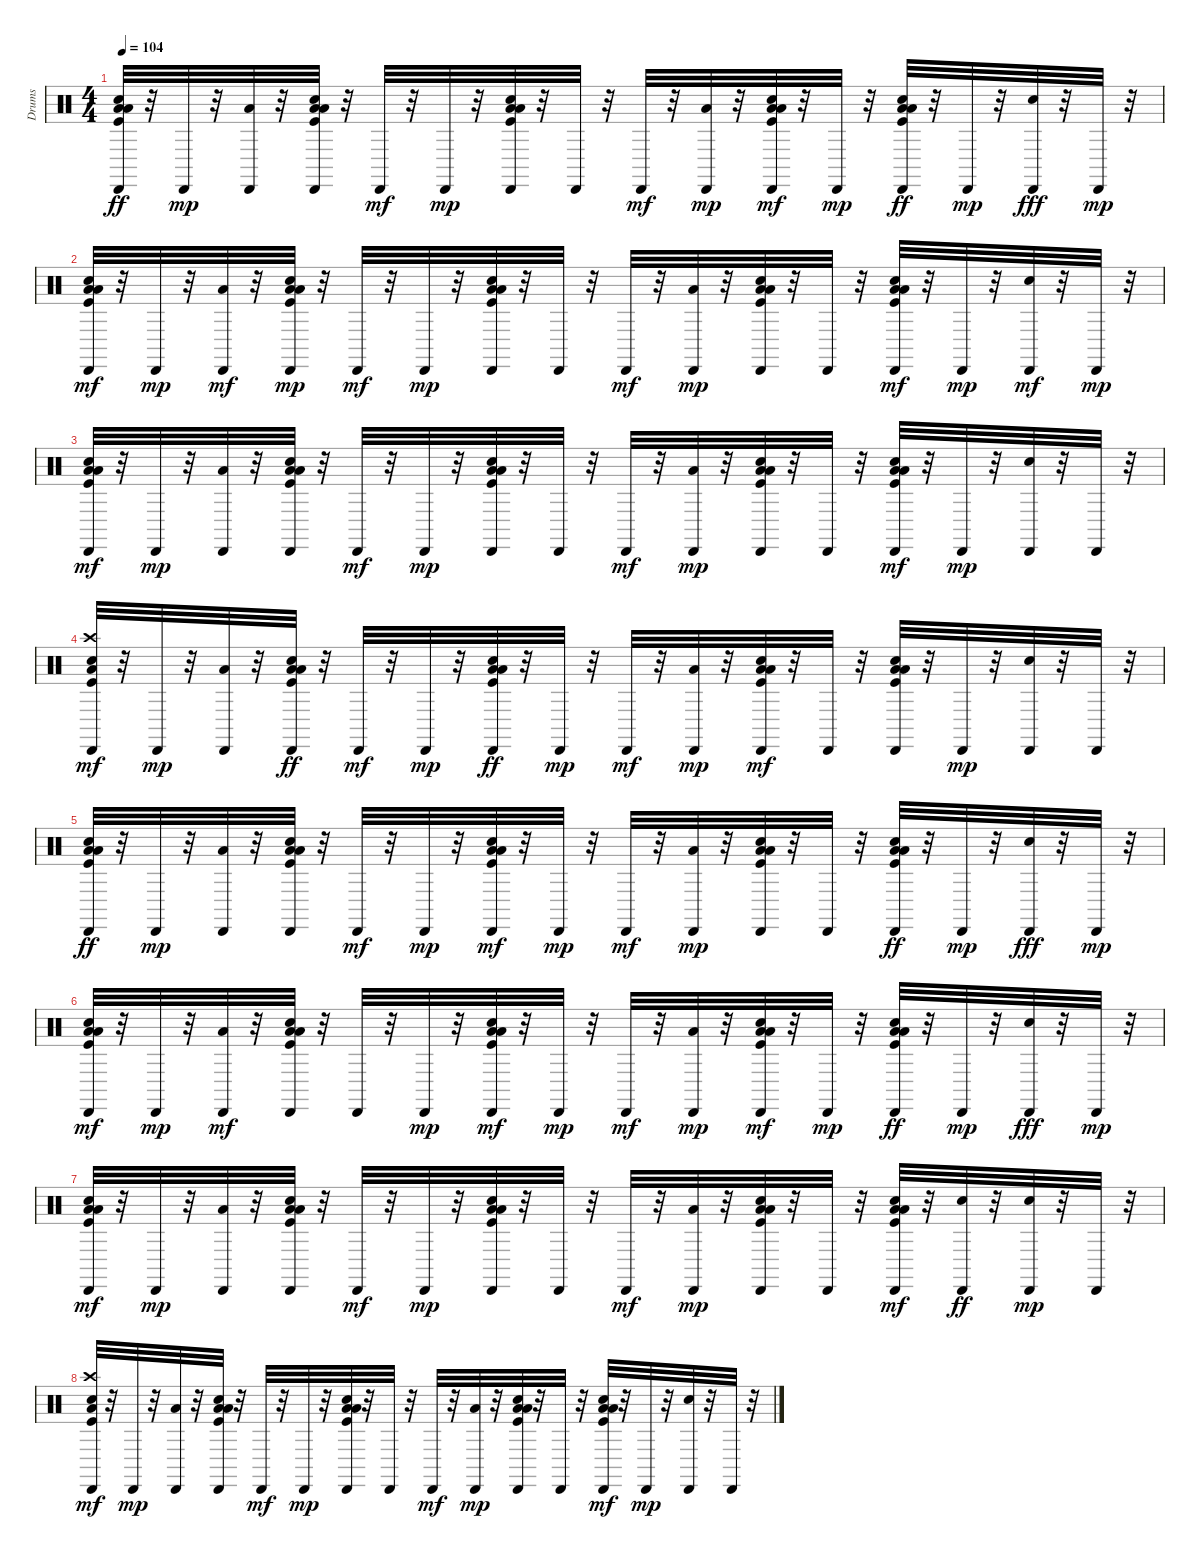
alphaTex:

\track ("Drums" "Drums") {instrument percussion}
\staff {score}
\articulation defaults
\ts (4 4)
\tempo 104
\clef neutral
\ks c
("Low Floor Tom (hit)" "Kick (hit)" "Cabasa (hit)" "Hand Clap (hit)" "Low Tom (hit)").32{dy ff} r.32 "Cabasa (hit)".32{dy mp} r.32 ("Low Tom (hit)" "Cabasa (hit)").32 r.32 ("Low Tom (hit)" "Kick (hit)" "Cabasa (hit)" "Low Floor Tom (hit)" "Hand Clap (hit)").32 r.32 "Cabasa (hit)".32{dy mf} r.32 "Cabasa (hit)".32{dy mp} r.32 ("Low Tom (hit)" "Low Floor Tom (hit)" "Kick (hit)" "Hand Clap (hit)" "Cabasa (hit)").32 r.32 "Cabasa (hit)".32 r.32 "Cabasa (hit)".32{dy mf} r.32 ("Cabasa (hit)" "Low Tom (hit)").32{dy mp} r.32 ("Low Tom (hit)" "Hand Clap (hit)" "Cabasa (hit)" "Low Floor Tom (hit)" "Kick (hit)").32{dy mf} r.32 "Cabasa (hit)".32{dy mp} r.32 ("Hand Clap (hit)" "Low Tom (hit)" "Kick (hit)" "Cabasa (hit)" "Low Floor Tom (hit)").32{dy ff} r.32 "Cabasa (hit)".32{dy mp} r.32 ("Cabasa (hit)" "Snare (hit) 2").32{dy fff} r.32 "Cabasa (hit)".32{dy mp} r.32 |
("Hand Clap (hit)" "Low Floor Tom (hit)" "Cabasa (hit)" "Low Tom (hit)" "Kick (hit)").32{dy mf} r.32 "Cabasa (hit)".32{dy mp} r.32 ("Cabasa (hit)" "Low Tom (hit)").32{dy mf} r.32 ("Hand Clap (hit)" "Low Tom (hit)" "Low Floor Tom (hit)" "Kick (hit)" "Cabasa (hit)").32{dy mp} r.32 "Cabasa (hit)".32{dy mf} r.32 "Cabasa (hit)".32{dy mp} r.32 ("Low Tom (hit)" "Low Floor Tom (hit)" "Hand Clap (hit)" "Kick (hit)" "Cabasa (hit)").32 r.32 "Cabasa (hit)".32 r.32 "Cabasa (hit)".32{dy mf} r.32 ("Low Tom (hit)" "Cabasa (hit)").32{dy mp} r.32 ("Hand Clap (hit)" "Low Tom (hit)" "Low Floor Tom (hit)" "Kick (hit)" "Cabasa (hit)").32 r.32 "Cabasa (hit)".32 r.32 ("Hand Clap (hit)" "Kick (hit)" "Low Tom (hit)" "Low Floor Tom (hit)" "Cabasa (hit)").32{dy mf} r.32 "Cabasa (hit)".32{dy mp} r.32 ("Snare (hit) 2" "Cabasa (hit)").32{dy mf} r.32 "Cabasa (hit)".32{dy mp} r.32 |
("Low Floor Tom (hit)" "Hand Clap (hit)" "Cabasa (hit)" "Kick (hit)" "Low Tom (hit)").32{dy mf} r.32 "Cabasa (hit)".32{dy mp} r.32 ("Cabasa (hit)" "Low Tom (hit)").32 r.32 ("Kick (hit)" "Cabasa (hit)" "Low Floor Tom (hit)" "Low Tom (hit)" "Hand Clap (hit)").32 r.32 "Cabasa (hit)".32{dy mf} r.32 "Cabasa (hit)".32{dy mp} r.32 ("Low Floor Tom (hit)" "Low Tom (hit)" "Kick (hit)" "Cabasa (hit)" "Hand Clap (hit)").32 r.32 "Cabasa (hit)".32 r.32 "Cabasa (hit)".32{dy mf} r.32 ("Cabasa (hit)" "Low Tom (hit)").32{dy mp} r.32 ("Low Floor Tom (hit)" "Low Tom (hit)" "Kick (hit)" "Hand Clap (hit)" "Cabasa (hit)").32 r.32 "Cabasa (hit)".32 r.32 ("Hand Clap (hit)" "Low Floor Tom (hit)" "Low Tom (hit)" "Kick (hit)" "Cabasa (hit)").32{dy mf} r.32 "Cabasa (hit)".32{dy mp} r.32 ("Snare (hit) 2" "Cabasa (hit)").32 r.32 "Cabasa (hit)".32 r.32 |
("Crash high (hit)" "Hand Clap (hit)" "Cabasa (hit)" "Low Floor Tom (hit)" "Kick (hit)").32{dy mf} r.32 "Cabasa (hit)".32{dy mp} r.32 ("Low Tom (hit)" "Cabasa (hit)").32 r.32 ("Low Tom (hit)" "Kick (hit)" "Hand Clap (hit)" "Cabasa (hit)" "Low Floor Tom (hit)").32{dy ff} r.32 "Cabasa (hit)".32{dy mf} r.32 "Cabasa (hit)".32{dy mp} r.32 ("Low Tom (hit)" "Kick (hit)" "Hand Clap (hit)" "Cabasa (hit)" "Low Floor Tom (hit)").32{dy ff} r.32 "Cabasa (hit)".32{dy mp} r.32 "Cabasa (hit)".32{dy mf} r.32 ("Low Tom (hit)" "Cabasa (hit)").32{dy mp} r.32 ("Low Tom (hit)" "Low Floor Tom (hit)" "Kick (hit)" "Hand Clap (hit)" "Cabasa (hit)").32{dy mf} r.32 "Cabasa (hit)".32 r.32 ("Low Floor Tom (hit)" "Low Tom (hit)" "Kick (hit)" "Cabasa (hit)" "Hand Clap (hit)").32 r.32 "Cabasa (hit)".32{dy mp} r.32 ("Snare (hit) 2" "Cabasa (hit)").32 r.32 "Cabasa (hit)".32 r.32 |
("Low Floor Tom (hit)" "Kick (hit)" "Hand Clap (hit)" "Cabasa (hit)" "Low Tom (hit)").32{dy ff} r.32 "Cabasa (hit)".32{dy mp} r.32 ("Low Tom (hit)" "Cabasa (hit)").32 r.32 ("Low Tom (hit)" "Kick (hit)" "Cabasa (hit)" "Hand Clap (hit)" "Low Floor Tom (hit)").32 r.32 "Cabasa (hit)".32{dy mf} r.32 "Cabasa (hit)".32{dy mp} r.32 ("Hand Clap (hit)" "Cabasa (hit)" "Low Tom (hit)" "Low Floor Tom (hit)" "Kick (hit)").32{dy mf} r.32 "Cabasa (hit)".32{dy mp} r.32 "Cabasa (hit)".32{dy mf} r.32 ("Low Tom (hit)" "Cabasa (hit)").32{dy mp} r.32 ("Hand Clap (hit)" "Low Tom (hit)" "Low Floor Tom (hit)" "Kick (hit)" "Cabasa (hit)").32 r.32 "Cabasa (hit)".32 r.32 ("Hand Clap (hit)" "Low Tom (hit)" "Kick (hit)" "Cabasa (hit)" "Low Floor Tom (hit)").32{dy ff} r.32 "Cabasa (hit)".32{dy mp} r.32 ("Cabasa (hit)" "Snare (hit) 2").32{dy fff} r.32 "Cabasa (hit)".32{dy mp} r.32 |
("Hand Clap (hit)" "Low Floor Tom (hit)" "Cabasa (hit)" "Low Tom (hit)" "Kick (hit)").32{dy mf} r.32 "Cabasa (hit)".32{dy mp} r.32 ("Cabasa (hit)" "Low Tom (hit)").32{dy mf} r.32 ("Hand Clap (hit)" "Cabasa (hit)" "Low Tom (hit)" "Low Floor Tom (hit)" "Kick (hit)").32 r.32 "Cabasa (hit)".32 r.32 "Cabasa (hit)".32{dy mp} r.32 ("Hand Clap (hit)" "Low Tom (hit)" "Low Floor Tom (hit)" "Cabasa (hit)" "Kick (hit)").32{dy mf} r.32 "Cabasa (hit)".32{dy mp} r.32 "Cabasa (hit)".32{dy mf} r.32 ("Cabasa (hit)" "Low Tom (hit)").32{dy mp} r.32 ("Hand Clap (hit)" "Low Tom (hit)" "Low Floor Tom (hit)" "Kick (hit)" "Cabasa (hit)").32{dy mf} r.32 "Cabasa (hit)".32{dy mp} r.32 ("Hand Clap (hit)" "Kick (hit)" "Cabasa (hit)" "Low Tom (hit)" "Low Floor Tom (hit)").32{dy ff} r.32 "Cabasa (hit)".32{dy mp} r.32 ("Cabasa (hit)" "Snare (hit) 2").32{dy fff} r.32 "Cabasa (hit)".32{dy mp} r.32 |
("Low Floor Tom (hit)" "Hand Clap (hit)" "Cabasa (hit)" "Kick (hit)" "Low Tom (hit)").32{dy mf} r.32 "Cabasa (hit)".32{dy mp} r.32 ("Cabasa (hit)" "Low Tom (hit)").32 r.32 ("Kick (hit)" "Cabasa (hit)" "Low Floor Tom (hit)" "Low Tom (hit)" "Hand Clap (hit)").32 r.32 "Cabasa (hit)".32{dy mf} r.32 "Cabasa (hit)".32{dy mp} r.32 ("Low Floor Tom (hit)" "Low Tom (hit)" "Kick (hit)" "Hand Clap (hit)" "Cabasa (hit)").32 r.32 "Cabasa (hit)".32 r.32 "Cabasa (hit)".32{dy mf} r.32 ("Low Tom (hit)" "Cabasa (hit)").32{dy mp} r.32 ("Low Floor Tom (hit)" "Hand Clap (hit)" "Low Tom (hit)" "Kick (hit)" "Cabasa (hit)").32 r.32 "Cabasa (hit)".32 r.32 ("Low Floor Tom (hit)" "Low Tom (hit)" "Kick (hit)" "Cabasa (hit)" "Hand Clap (hit)").32{dy mf} r.32 ("Cabasa (hit)" "Snare (hit) 2").32{dy ff} r.32 ("Snare (hit) 2" "Cabasa (hit)").32{dy mp} r.32 "Cabasa (hit)".32 r.32 |
("Hand Clap (hit)" "Crash high (hit)" "Low Floor Tom (hit)" "Kick (hit)" "Cabasa (hit)").32{dy mf} r.32 "Cabasa (hit)".32{dy mp} r.32 ("Low Tom (hit)" "Cabasa (hit)").32 r.32 ("Low Tom (hit)" "Kick (hit)" "Low Floor Tom (hit)" "Cabasa (hit)" "Hand Clap (hit)").32 r.32 "Cabasa (hit)".32{dy mf} r.32 "Cabasa (hit)".32{dy mp} r.32 ("Low Tom (hit)" "Kick (hit)" "Low Floor Tom (hit)" "Cabasa (hit)" "Hand Clap (hit)").32 r.32 "Cabasa (hit)".32 r.32 "Cabasa (hit)".32{dy mf} r.32 ("Low Tom (hit)" "Cabasa (hit)").32{dy mp} r.32 ("Low Tom (hit)" "Low Floor Tom (hit)" "Kick (hit)" "Hand Clap (hit)" "Cabasa (hit)").32 r.32 "Cabasa (hit)".32 r.32 ("Low Floor Tom (hit)" "Low Tom (hit)" "Kick (hit)" "Hand Clap (hit)" "Cabasa (hit)").32{dy mf} r.32 "Cabasa (hit)".32{dy mp} r.32 ("Snare (hit) 2" "Cabasa (hit)").32 r.32 "Cabasa (hit)".32 r.32
